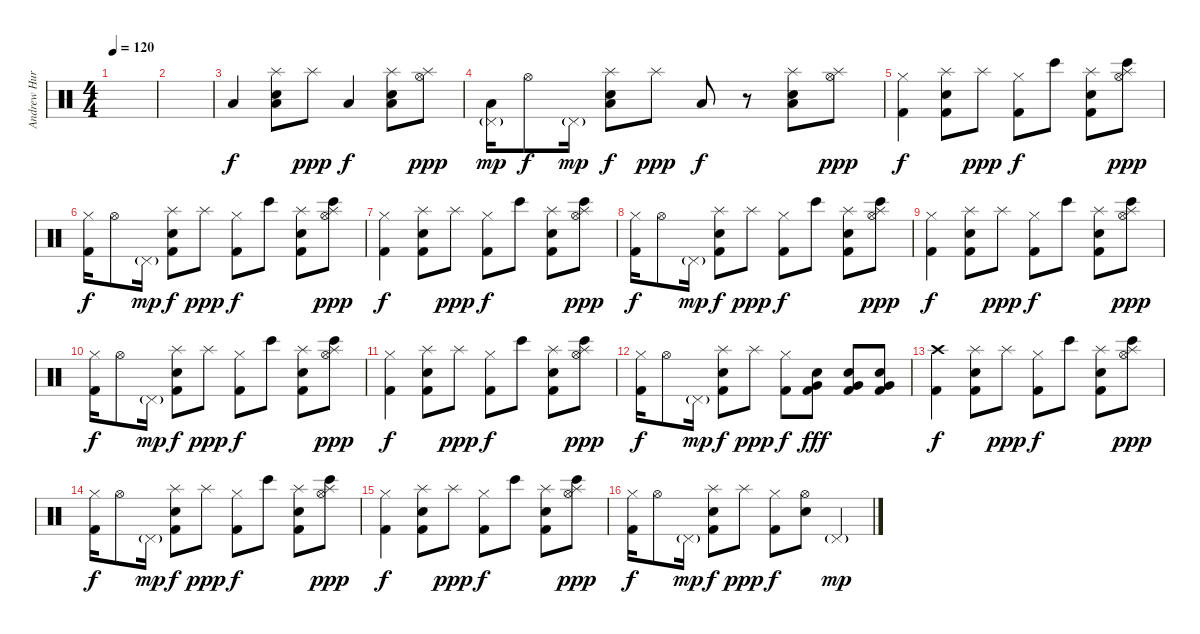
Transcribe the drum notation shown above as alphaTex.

\track ("Andrew Hurley (Drums)" "Andrew Hur") {instrument percussion}
\staff {score}
\articulation defaults
\ts (4 4)
\tempo 120
\clef neutral
\ks c
|
|
"Low Floor Tom (hit)".4{volume 9} ("Splash (hit)" "Snare (hit) 2" "Low Floor Tom (hit)").8 "Splash (hit)".8{dy ppp} "Low Floor Tom (hit)".4{dy f} ("Splash (hit)" "Snare (hit) 2" "Low Floor Tom (hit)").8 ("Hi-Hat (open)" "Splash (hit)").8{dy ppp} |
("Pedal Hi-Hat (hit)"{g} "Low Floor Tom (hit)").16{dy mp} "Hi-Hat (open)".8{dy f} "Pedal Hi-Hat (hit)"{g}.16{dy mp} ("Splash (hit)" "Snare (hit) 2" "Low Floor Tom (hit)").8{dy f} "Splash (hit)".8{dy ppp} "Low Floor Tom (hit)".8{dy f} r.8 ("Splash (hit)" "Snare (hit) 2" "Low Floor Tom (hit)").8 ("Hi-Hat (open)" "Splash (hit)").8{dy ppp} |
("Hi-Hat (closed)" "Kick (hit) 2").4{dy f volume 16} ("Splash (hit)" "Snare (hit) 2" "Kick (hit) 2").8 "Splash (hit)".8{dy ppp} ("Hi-Hat (closed)" "Kick (hit) 2").8{dy f} "Bongo High (hit)".8 ("Splash (hit)" "Snare (hit) 2" "Kick (hit) 2").8 ("Hi-Hat (open)" "Splash (hit)" "Bongo High (hit)").8{dy ppp} |
("Hi-Hat (closed)" "Kick (hit) 2").16{dy f} "Hi-Hat (open)".8 "Pedal Hi-Hat (hit)"{g}.16{dy mp} ("Splash (hit)" "Snare (hit) 2" "Kick (hit) 2").8{dy f} "Splash (hit)".8{dy ppp} ("Hi-Hat (closed)" "Kick (hit) 2").8{dy f} "Bongo High (hit)".8 ("Splash (hit)" "Snare (hit) 2" "Kick (hit) 2").8 ("Hi-Hat (open)" "Splash (hit)" "Bongo High (hit)").8{dy ppp} |
("Hi-Hat (closed)" "Kick (hit) 2").4{dy f} ("Splash (hit)" "Snare (hit) 2" "Kick (hit) 2").8 "Splash (hit)".8{dy ppp} ("Hi-Hat (closed)" "Kick (hit) 2").8{dy f} "Bongo High (hit)".8 ("Splash (hit)" "Snare (hit) 2" "Kick (hit) 2").8 ("Hi-Hat (open)" "Splash (hit)" "Bongo High (hit)").8{dy ppp} |
("Hi-Hat (closed)" "Kick (hit) 2").16{dy f} "Hi-Hat (open)".8 "Pedal Hi-Hat (hit)"{g}.16{dy mp} ("Splash (hit)" "Snare (hit) 2" "Kick (hit) 2").8{dy f} "Splash (hit)".8{dy ppp} ("Hi-Hat (closed)" "Kick (hit) 2").8{dy f} "Bongo High (hit)".8 ("Splash (hit)" "Snare (hit) 2" "Kick (hit) 2").8 ("Hi-Hat (open)" "Splash (hit)" "Bongo High (hit)").8{dy ppp} |
("Hi-Hat (closed)" "Kick (hit) 2").4{dy f} ("Splash (hit)" "Snare (hit) 2" "Kick (hit) 2").8 "Splash (hit)".8{dy ppp} ("Hi-Hat (closed)" "Kick (hit) 2").8{dy f} "Bongo High (hit)".8 ("Splash (hit)" "Snare (hit) 2" "Kick (hit) 2").8 ("Hi-Hat (open)" "Splash (hit)" "Bongo High (hit)").8{dy ppp} |
("Hi-Hat (closed)" "Kick (hit) 2").16{dy f} "Hi-Hat (open)".8 "Pedal Hi-Hat (hit)"{g}.16{dy mp} ("Splash (hit)" "Snare (hit) 2" "Kick (hit) 2").8{dy f} "Splash (hit)".8{dy ppp} ("Hi-Hat (closed)" "Kick (hit) 2").8{dy f} "Bongo High (hit)".8 ("Splash (hit)" "Snare (hit) 2" "Kick (hit) 2").8 ("Hi-Hat (open)" "Splash (hit)" "Bongo High (hit)").8{dy ppp} |
("Hi-Hat (closed)" "Kick (hit) 2").4{dy f} ("Splash (hit)" "Snare (hit) 2" "Kick (hit) 2").8 "Splash (hit)".8{dy ppp} ("Hi-Hat (closed)" "Kick (hit) 2").8{dy f} "Bongo High (hit)".8 ("Splash (hit)" "Snare (hit) 2" "Kick (hit) 2").8 ("Hi-Hat (open)" "Splash (hit)" "Bongo High (hit)").8{dy ppp} |
("Hi-Hat (closed)" "Kick (hit) 2").16{dy f} "Hi-Hat (open)".8 "Pedal Hi-Hat (hit)"{g}.16{dy mp} ("Splash (hit)" "Snare (hit) 2" "Kick (hit) 2").8{dy f} "Splash (hit)".8{dy ppp} ("Hi-Hat (closed)" "Kick (hit) 2").8{dy f} ("Very Low Tom (hit)" "Snare (hit) 2" "Kick (hit) 2").8{dy fff} ("Very Low Tom (hit)" "Snare (hit) 2" "Kick (hit) 2").8 ("Very Low Tom (hit)" "Snare (hit) 2" "Kick (hit) 2").8 |
("Crash high (hit)" "Kick (hit) 2").4{dy f} ("Splash (hit)" "Snare (hit) 2" "Kick (hit) 2").8 "Splash (hit)".8{dy ppp} ("Hi-Hat (closed)" "Kick (hit) 2").8{dy f} "Bongo High (hit)".8 ("Splash (hit)" "Snare (hit) 2" "Kick (hit) 2").8 ("Hi-Hat (open)" "Splash (hit)" "Bongo High (hit)").8{dy ppp} |
("Hi-Hat (closed)" "Kick (hit) 2").16{dy f} "Hi-Hat (open)".8 "Pedal Hi-Hat (hit)"{g}.16{dy mp} ("Splash (hit)" "Snare (hit) 2" "Kick (hit) 2").8{dy f} "Splash (hit)".8{dy ppp} ("Hi-Hat (closed)" "Kick (hit) 2").8{dy f} "Bongo High (hit)".8 ("Splash (hit)" "Snare (hit) 2" "Kick (hit) 2").8 ("Hi-Hat (open)" "Splash (hit)" "Bongo High (hit)").8{dy ppp} |
("Hi-Hat (closed)" "Kick (hit) 2").4{dy f} ("Splash (hit)" "Snare (hit) 2" "Kick (hit) 2").8 "Splash (hit)".8{dy ppp} ("Hi-Hat (closed)" "Kick (hit) 2").8{dy f} "Bongo High (hit)".8 ("Splash (hit)" "Snare (hit) 2" "Kick (hit) 2").8 ("Hi-Hat (open)" "Splash (hit)" "Bongo High (hit)").8{dy ppp} |
("Hi-Hat (closed)" "Kick (hit) 2").16{dy f} "Hi-Hat (open)".8 "Pedal Hi-Hat (hit)"{g}.16{dy mp} ("Splash (hit)" "Snare (hit) 2" "Kick (hit) 2").8{dy f} "Splash (hit)".8{dy ppp} ("Hi-Hat (closed)" "Kick (hit) 2").8{dy f} ("Hi-Hat (open)" "Snare (hit) 2").8 "Pedal Hi-Hat (hit)"{g}.4{dy mp}
